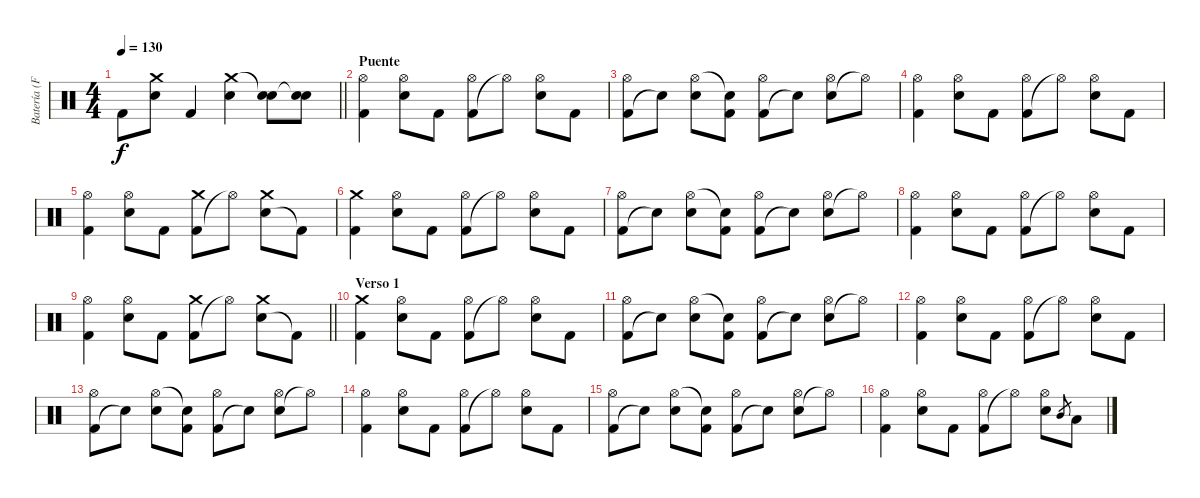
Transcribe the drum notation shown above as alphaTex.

\track ("Batería (F. Scarcella)" "Batería (F") {instrument percussion}
\staff {score}
\articulation defaults
\ts (4 4)
\tempo 130
\clef neutral
\barLineRight lightlight
\ks c "Kick (hit) 2".8{dy f}
("Snare (hit) 2" "Crash medium (hit)").8 "Kick (hit) 2".4 ("Snare (hit) 2" "Crash medium (hit)").4 ("Snare (hit) 2" "Snare (hit)"{t}).8 ("Snare (hit) 2" "Snare (hit)"{t}).8 |
\section ("" "Puente")
("Kick (hit) 2" "Hi-Hat (open)").4 ("Snare (hit) 2" "Hi-Hat (open)").8 "Kick (hit) 2".8 ("Kick (hit) 2" "Hi-Hat (open)").8 "Hi-Hat (open)"{t}.8 ("Snare (hit) 2" "Hi-Hat (open)").8 "Kick (hit) 2".8 |
("Kick (hit) 2" "Hi-Hat (open)").8 "Snare (hit)"{t}.8 ("Snare (hit) 2" "Hi-Hat (open)").8 ("Kick (hit) 2" "Snare (hit)"{t}).8 ("Kick (hit) 2" "Hi-Hat (open)").8 "Snare (hit)"{t}.8 ("Snare (hit) 2" "Hi-Hat (open)").8 "Hi-Hat (open)"{t}.8 |
("Kick (hit) 2" "Hi-Hat (open)").4 ("Snare (hit) 2" "Hi-Hat (open)").8 "Kick (hit) 2".8 ("Kick (hit) 2" "Hi-Hat (open)").8 "Hi-Hat (open)"{t}.8 ("Snare (hit) 2" "Hi-Hat (open)").8 "Kick (hit) 2".8 |
("Kick (hit) 2" "Hi-Hat (open)").4 ("Snare (hit) 2" "Hi-Hat (open)").8 "Kick (hit) 2".8 ("Kick (hit) 2" "Crash medium (hit)").8 "Hi-Hat (open)"{t}.8 ("Snare (hit) 2" "Crash medium (hit)").8 "Kick (hit) 2"{t}.8 |
("Kick (hit) 2" "Crash medium (hit)").4 ("Snare (hit) 2" "Hi-Hat (open)").8 "Kick (hit) 2".8 ("Kick (hit) 2" "Hi-Hat (open)").8 "Hi-Hat (open)"{t}.8 ("Snare (hit) 2" "Hi-Hat (open)").8 "Kick (hit) 2".8 |
("Kick (hit) 2" "Hi-Hat (open)").8 "Snare (hit)"{t}.8 ("Snare (hit) 2" "Hi-Hat (open)").8 ("Kick (hit) 2" "Snare (hit)"{t}).8 ("Kick (hit) 2" "Hi-Hat (open)").8 "Snare (hit)"{t}.8 ("Snare (hit) 2" "Hi-Hat (open)").8 "Hi-Hat (open)"{t}.8 |
("Kick (hit) 2" "Hi-Hat (open)").4 ("Snare (hit) 2" "Hi-Hat (open)").8 "Kick (hit) 2".8 ("Kick (hit) 2" "Hi-Hat (open)").8 "Hi-Hat (open)"{t}.8 ("Snare (hit) 2" "Hi-Hat (open)").8 "Kick (hit) 2".8 |
\barLineRight lightlight
("Kick (hit) 2" "Hi-Hat (open)").4 ("Snare (hit) 2" "Hi-Hat (open)").8 "Kick (hit) 2".8 ("Kick (hit) 2" "Crash medium (hit)").8 "Hi-Hat (open)"{t}.8 ("Snare (hit) 2" "Crash medium (hit)").8 "Kick (hit) 2"{t}.8 |
\section ("" "Verso 1")
("Kick (hit) 2" "Crash medium (hit)").4 ("Snare (hit) 2" "Hi-Hat (open)").8 "Kick (hit) 2".8 ("Kick (hit) 2" "Hi-Hat (open)").8 "Hi-Hat (open)"{t}.8 ("Snare (hit) 2" "Hi-Hat (open)").8 "Kick (hit) 2".8 |
("Kick (hit) 2" "Hi-Hat (open)").8 "Snare (hit)"{t}.8 ("Snare (hit) 2" "Hi-Hat (open)").8 ("Kick (hit) 2" "Snare (hit)"{t}).8 ("Kick (hit) 2" "Hi-Hat (open)").8 "Snare (hit)"{t}.8 ("Snare (hit) 2" "Hi-Hat (open)").8 "Hi-Hat (open)"{t}.8 |
("Kick (hit) 2" "Hi-Hat (open)").4 ("Snare (hit) 2" "Hi-Hat (open)").8 "Kick (hit) 2".8 ("Kick (hit) 2" "Hi-Hat (open)").8 "Hi-Hat (open)"{t}.8 ("Snare (hit) 2" "Hi-Hat (open)").8 "Kick (hit) 2".8 |
("Kick (hit) 2" "Hi-Hat (open)").8 "Snare (hit)"{t}.8 ("Snare (hit) 2" "Hi-Hat (open)").8 ("Kick (hit) 2" "Snare (hit)"{t}).8 ("Kick (hit) 2" "Hi-Hat (open)").8 "Snare (hit)"{t}.8 ("Snare (hit) 2" "Hi-Hat (open)").8 "Hi-Hat (open)"{t}.8 |
("Kick (hit) 2" "Hi-Hat (open)").4 ("Snare (hit) 2" "Hi-Hat (open)").8 "Kick (hit) 2".8 ("Kick (hit) 2" "Hi-Hat (open)").8 "Hi-Hat (open)"{t}.8 ("Snare (hit) 2" "Hi-Hat (open)").8 "Kick (hit) 2".8 |
("Kick (hit) 2" "Hi-Hat (open)").8 "Snare (hit)"{t}.8 ("Snare (hit) 2" "Hi-Hat (open)").8 ("Kick (hit) 2" "Snare (hit)"{t}).8 ("Kick (hit) 2" "Hi-Hat (open)").8 "Snare (hit)"{t}.8 ("Snare (hit) 2" "Hi-Hat (open)").8 "Hi-Hat (open)"{t}.8 |
("Kick (hit) 2" "Hi-Hat (open)").4 ("Snare (hit) 2" "Hi-Hat (open)").8 "Kick (hit) 2".8 ("Kick (hit) 2" "Hi-Hat (open)").8 "Hi-Hat (open)"{t}.8 ("Snare (hit) 2" "Hi-Hat (open)").8 "Mid Tom (hit)".8{gr} "Low Tom (hit)".8
